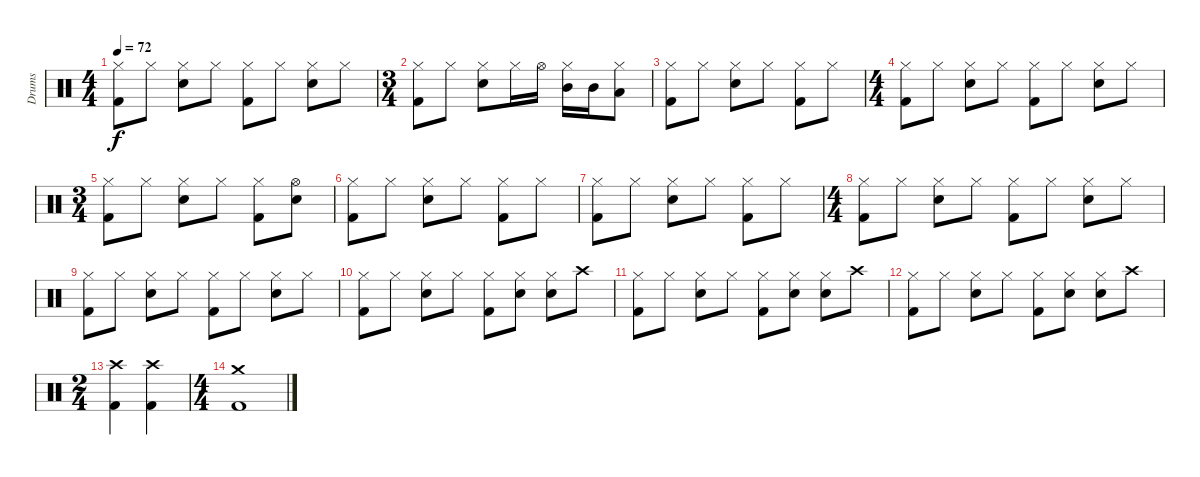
\track ("Drums" "Drums") {instrument percussion}
\staff {score}
\articulation defaults
\ts (4 4)
\tempo 72
\clef neutral
\ks c
("Hi-Hat (closed)" "Kick (hit) 2").8{dy f} "Hi-Hat (closed)".8 ("Hi-Hat (closed)" "Electric Snare (hit)").8 "Hi-Hat (closed)".8 ("Hi-Hat (closed)" "Kick (hit) 2").8 "Hi-Hat (closed)".8 ("Hi-Hat (closed)" "Electric Snare (hit)").8 "Hi-Hat (closed)".8 |
\ts (3 4)
("Hi-Hat (closed)" "Kick (hit) 2").8 "Hi-Hat (closed)".8 ("Hi-Hat (closed)" "Electric Snare (hit)").8 "Hi-Hat (closed)".16 "Hi-Hat (open)".16 ("Hi-Hat (closed)" "Mid Tom (hit)").16 "Mid Tom (hit)".16 ("Hi-Hat (closed)" "Low Tom (hit)").8 |
("Hi-Hat (closed)" "Kick (hit) 2").8 "Hi-Hat (closed)".8 ("Hi-Hat (closed)" "Electric Snare (hit)").8 "Hi-Hat (closed)".8 ("Hi-Hat (closed)" "Kick (hit) 2").8 "Hi-Hat (closed)".8 |
\ts (4 4)
("Hi-Hat (closed)" "Kick (hit) 2").8 "Hi-Hat (closed)".8 ("Hi-Hat (closed)" "Electric Snare (hit)").8 "Hi-Hat (closed)".8 ("Hi-Hat (closed)" "Kick (hit) 2").8 "Hi-Hat (closed)".8 ("Hi-Hat (closed)" "Electric Snare (hit)").8 "Hi-Hat (closed)".8 |
\ts (3 4)
("Hi-Hat (closed)" "Kick (hit) 2").8 "Hi-Hat (closed)".8 ("Hi-Hat (closed)" "Electric Snare (hit)").8 "Hi-Hat (closed)".8 ("Hi-Hat (closed)" "Kick (hit) 2").8 ("Hi-Hat (open)" "Electric Snare (hit)").8 |
("Hi-Hat (closed)" "Kick (hit) 2").8 "Hi-Hat (closed)".8 ("Hi-Hat (closed)" "Electric Snare (hit)").8 "Hi-Hat (closed)".8 ("Hi-Hat (closed)" "Kick (hit) 2").8 "Hi-Hat (closed)".8 |
("Hi-Hat (closed)" "Kick (hit) 2").8 "Hi-Hat (closed)".8 ("Hi-Hat (closed)" "Electric Snare (hit)").8 "Hi-Hat (closed)".8 ("Hi-Hat (closed)" "Kick (hit) 2").8 "Hi-Hat (closed)".8 |
\ts (4 4)
("Hi-Hat (closed)" "Kick (hit) 2").8 "Hi-Hat (closed)".8 ("Hi-Hat (closed)" "Electric Snare (hit)").8 "Hi-Hat (closed)".8 ("Hi-Hat (closed)" "Kick (hit) 2").8 "Hi-Hat (closed)".8 ("Hi-Hat (closed)" "Electric Snare (hit)").8 "Hi-Hat (closed)".8 |
("Hi-Hat (closed)" "Kick (hit) 2").8 "Hi-Hat (closed)".8 ("Hi-Hat (closed)" "Electric Snare (hit)").8 "Hi-Hat (closed)".8 ("Hi-Hat (closed)" "Kick (hit) 2").8 "Hi-Hat (closed)".8 ("Hi-Hat (closed)" "Electric Snare (hit)").8 "Hi-Hat (closed)".8 |
("Hi-Hat (closed)" "Kick (hit) 2").8 "Hi-Hat (closed)".8 ("Hi-Hat (closed)" "Electric Snare (hit)").8 "Hi-Hat (closed)".8 ("Hi-Hat (closed)" "Kick (hit) 2").8 ("Hi-Hat (closed)" "Electric Snare (hit)").8 ("Hi-Hat (closed)" "Electric Snare (hit)").8 "Crash high (hit)".8 |
("Hi-Hat (closed)" "Kick (hit) 2").8 "Hi-Hat (closed)".8 ("Hi-Hat (closed)" "Electric Snare (hit)").8 "Hi-Hat (closed)".8 ("Hi-Hat (closed)" "Kick (hit) 2").8 ("Hi-Hat (closed)" "Electric Snare (hit)").8 ("Hi-Hat (closed)" "Electric Snare (hit)").8 "Crash high (hit)".8 |
("Hi-Hat (closed)" "Kick (hit) 2").8 "Hi-Hat (closed)".8 ("Hi-Hat (closed)" "Electric Snare (hit)").8 "Hi-Hat (closed)".8 ("Hi-Hat (closed)" "Kick (hit) 2").8 ("Hi-Hat (closed)" "Electric Snare (hit)").8 ("Hi-Hat (closed)" "Electric Snare (hit)").8 "Crash high (hit)".8 |
\ts (2 4)
("Crash high (hit)" "Kick (hit) 2").4 ("Crash high (hit)" "Kick (hit) 2").4 |
\ts (4 4)
("Crash medium (hit)" "Kick (hit) 2").1
